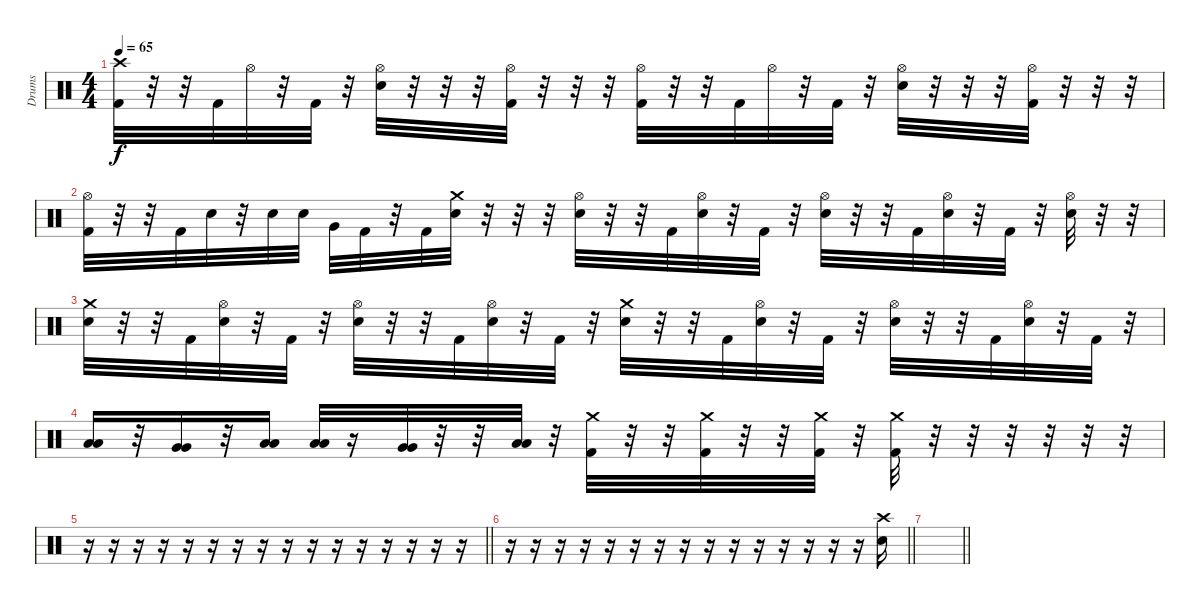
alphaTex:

\track ("Drums" "Drums") {instrument percussion}
\staff {score}
\articulation defaults
\ts (4 4)
\tempo 65
\clef neutral
\ks c
("Crash high (hit)" "Kick (hit) 2").32{dy f} r.32 r.32 "Kick (hit) 2".32 "Hi-Hat (open)".32 r.32 "Kick (hit) 2".32 r.32 ("Hi-Hat (open)" "Snare (hit) 2").32 r.32 r.32 r.32 ("Hi-Hat (open)" "Kick (hit) 2").32 r.32 r.32 r.32 ("Hi-Hat (open)" "Kick (hit) 2").32 r.32 r.32 "Kick (hit) 2".32 "Hi-Hat (open)".32 r.32 "Kick (hit) 2".32 r.32 ("Hi-Hat (open)" "Snare (hit) 2").32 r.32 r.32 r.32 ("Hi-Hat (open)" "Kick (hit) 2").32 r.32 r.32 r.32 |
("Hi-Hat (open)" "Kick (hit) 2").32 r.32 r.32 "Kick (hit) 2".32 "Snare (hit) 2".32 r.32 "Snare (hit) 2".32 "Snare (hit) 2".32 "Very Low Tom (hit)".32 "Kick (hit) 2".32 r.32 "Kick (hit) 2".32 ("Snare (hit) 2" "Crash medium (hit)").32 r.32 r.32 r.32 ("Hi-Hat (open)" "Snare (hit) 2").32 r.32 r.32 "Kick (hit) 2".32 ("Hi-Hat (open)" "Snare (hit) 2").32 r.32 "Kick (hit) 2".32 r.32 ("Hi-Hat (open)" "Snare (hit) 2").32 r.32 r.32 "Kick (hit) 2".32 ("Hi-Hat (open)" "Snare (hit) 2").32 r.32 "Kick (hit) 2".32 r.32 ("Hi-Hat (open)" "Snare (hit) 2").32 r.32 r.32 |
("Crash medium (hit)" "Snare (hit) 2").32 r.32 r.32 "Kick (hit) 2".32 ("Hi-Hat (open)" "Snare (hit) 2").32 r.32 "Kick (hit) 2".32 r.32 ("Hi-Hat (open)" "Snare (hit) 2").32 r.32 r.32 "Kick (hit) 2".32 ("Hi-Hat (open)" "Snare (hit) 2").32 r.32 "Kick (hit) 2".32 r.32 ("Crash medium (hit)" "Snare (hit) 2").32 r.32 r.32 "Kick (hit) 2".32 ("Hi-Hat (open)" "Snare (hit) 2").32 r.32 "Kick (hit) 2".32 r.32 ("Hi-Hat (open)" "Snare (hit) 2").32 r.32 r.32 "Kick (hit) 2".32 ("Hi-Hat (open)" "Snare (hit) 2").32 r.32 "Kick (hit) 2".32 r.32 |
("Low Tom (hit)" "Low Tom (hit)").16 r.32 ("Very Low Tom (hit)" "Very Low Tom (hit)").16 r.32 ("Low Floor Tom (hit)" "Low Floor Tom (hit)").16 ("Low Tom (hit)" "Low Tom (hit)").32 r.16 ("Very Low Tom (hit)" "Very Low Tom (hit)").32 r.32 r.32 ("Low Floor Tom (hit)" "Low Floor Tom (hit)").32 r.32 ("Crash medium (hit)" "Kick (hit) 2").32 r.32 r.32 ("Crash medium (hit)" "Kick (hit) 2").32 r.32 r.32 ("Crash medium (hit)" "Kick (hit) 2").32 r.32 ("Crash medium (hit)" "Kick (hit) 2").32 r.32 r.32 r.32 r.32 r.32 r.32 |
\barLineRight lightlight
r.16 r.16 r.16 r.16 r.16 r.16 r.16 r.16 r.16 r.16 r.16 r.16 r.16 r.16 r.16 r.16 |
\barLineRight lightlight
r.16 r.16 r.16 r.16 r.16 r.16 r.16 r.16 r.16 r.16 r.16 r.16 r.16 r.16 r.16 ("Crash high (hit)" "Snare (hit) 2").16 |
\barLineRight lightlight
